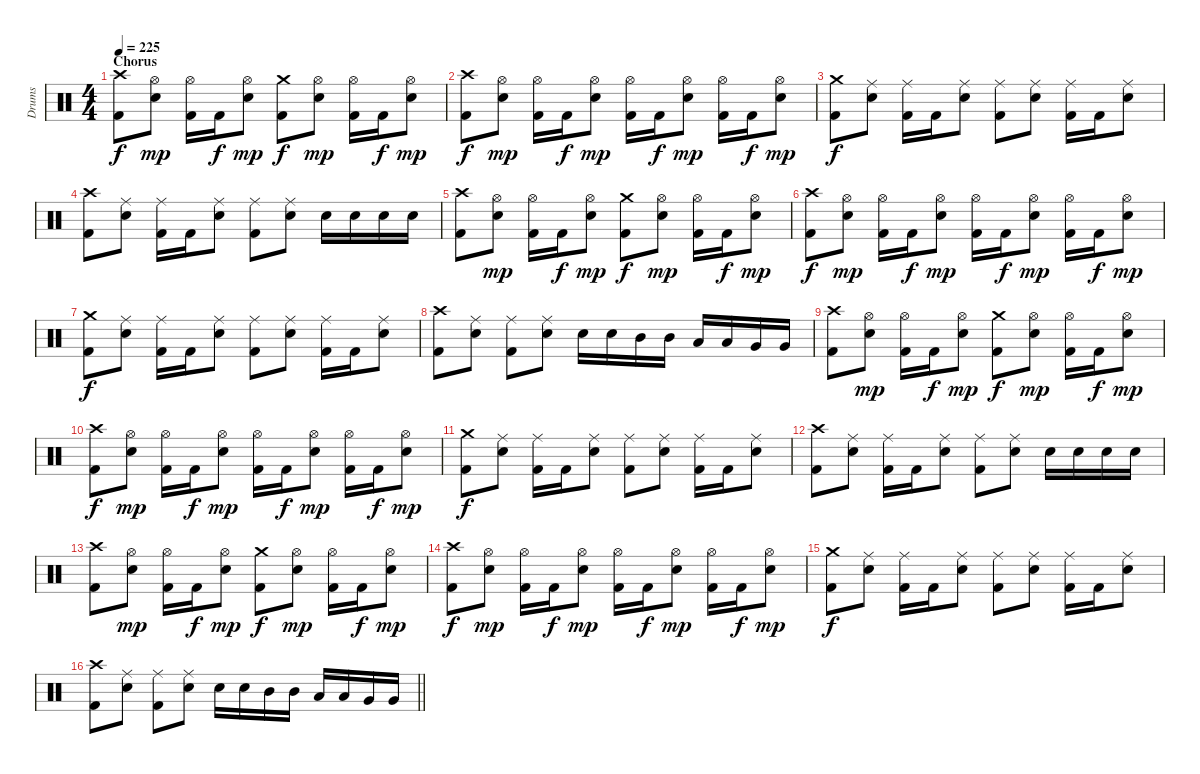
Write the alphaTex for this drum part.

\track ("Drums" "Drums") {instrument percussion}
\staff {score}
\articulation defaults
\ts (4 4)
\section ("" "Chorus")
\tempo 225
\clef neutral
\ks c
("Crash high (hit)" "Kick (hit) 2").8{dy f} ("Hi-Hat (open)" "Snare (hit) 2").8{dy mp} ("Hi-Hat (open)" "Kick (hit) 2").16 "Kick (hit) 2".16{dy f} ("Hi-Hat (open)" "Snare (hit) 2").8{dy mp} ("Crash medium (hit)" "Kick (hit) 2").8{dy f} ("Hi-Hat (open)" "Snare (hit) 2").8{dy mp} ("Hi-Hat (open)" "Kick (hit) 2").16 "Kick (hit) 2".16{dy f} ("Hi-Hat (open)" "Snare (hit) 2").8{dy mp} |
("Crash high (hit)" "Kick (hit) 2").8{dy f} ("Hi-Hat (open)" "Snare (hit) 2").8{dy mp} ("Hi-Hat (open)" "Kick (hit) 2").16 "Kick (hit) 2".16{dy f} ("Hi-Hat (open)" "Snare (hit) 2").8{dy mp} ("Hi-Hat (open)" "Kick (hit) 2").16 "Kick (hit) 2".16{dy f} ("Hi-Hat (open)" "Snare (hit) 2").8{dy mp} ("Hi-Hat (open)" "Kick (hit) 2").16 "Kick (hit) 2".16{dy f} ("Hi-Hat (open)" "Snare (hit) 2").8{dy mp} |
("Crash medium (hit)" "Kick (hit) 2").8{dy f} ("Ride (middle)" "Snare (hit) 2").8 ("Ride (middle)" "Kick (hit) 2").16 "Kick (hit) 2".16 ("Ride (middle)" "Snare (hit) 2").8 ("Ride (middle)" "Kick (hit) 2").8 ("Ride (middle)" "Snare (hit) 2").8 ("Ride (middle)" "Kick (hit) 2").16 "Kick (hit) 2".16 ("Ride (middle)" "Snare (hit) 2").8 |
("Crash high (hit)" "Kick (hit) 2").8 ("Ride (middle)" "Snare (hit) 2").8 ("Ride (middle)" "Kick (hit) 2").16 "Kick (hit) 2".16 ("Ride (middle)" "Snare (hit) 2").8 ("Ride (middle)" "Kick (hit) 2").8 ("Ride (middle)" "Snare (hit) 2").8 "Snare (hit) 2".16 "Snare (hit) 2".16 "Snare (hit) 2".16 "Snare (hit) 2".16 |
("Crash high (hit)" "Kick (hit) 2").8 ("Hi-Hat (open)" "Snare (hit) 2").8{dy mp} ("Hi-Hat (open)" "Kick (hit) 2").16 "Kick (hit) 2".16{dy f} ("Hi-Hat (open)" "Snare (hit) 2").8{dy mp} ("Crash medium (hit)" "Kick (hit) 2").8{dy f} ("Hi-Hat (open)" "Snare (hit) 2").8{dy mp} ("Hi-Hat (open)" "Kick (hit) 2").16 "Kick (hit) 2".16{dy f} ("Hi-Hat (open)" "Snare (hit) 2").8{dy mp} |
("Crash high (hit)" "Kick (hit) 2").8{dy f} ("Hi-Hat (open)" "Snare (hit) 2").8{dy mp} ("Hi-Hat (open)" "Kick (hit) 2").16 "Kick (hit) 2".16{dy f} ("Hi-Hat (open)" "Snare (hit) 2").8{dy mp} ("Hi-Hat (open)" "Kick (hit) 2").16 "Kick (hit) 2".16{dy f} ("Hi-Hat (open)" "Snare (hit) 2").8{dy mp} ("Hi-Hat (open)" "Kick (hit) 2").16 "Kick (hit) 2".16{dy f} ("Hi-Hat (open)" "Snare (hit) 2").8{dy mp} |
("Crash medium (hit)" "Kick (hit) 2").8{dy f} ("Ride (middle)" "Snare (hit) 2").8 ("Ride (middle)" "Kick (hit) 2").16 "Kick (hit) 2".16 ("Ride (middle)" "Snare (hit) 2").8 ("Ride (middle)" "Kick (hit) 2").8 ("Ride (middle)" "Snare (hit) 2").8 ("Ride (middle)" "Kick (hit) 2").16 "Kick (hit) 2".16 ("Ride (middle)" "Snare (hit) 2").8 |
("Crash high (hit)" "Kick (hit) 2").8 ("Ride (middle)" "Snare (hit) 2").8 ("Ride (middle)" "Kick (hit) 2").8 ("Ride (middle)" "Snare (hit) 2").8 "Snare (hit) 2".16 "Snare (hit) 2".16 "Mid Tom (hit)".16 "Mid Tom (hit)".16 "Low Tom (hit)".16 "Low Tom (hit)".16 "Very Low Tom (hit)".16 "Very Low Tom (hit)".16 |
("Crash high (hit)" "Kick (hit) 2").8 ("Hi-Hat (open)" "Snare (hit) 2").8{dy mp} ("Hi-Hat (open)" "Kick (hit) 2").16 "Kick (hit) 2".16{dy f} ("Hi-Hat (open)" "Snare (hit) 2").8{dy mp} ("Crash medium (hit)" "Kick (hit) 2").8{dy f} ("Hi-Hat (open)" "Snare (hit) 2").8{dy mp} ("Hi-Hat (open)" "Kick (hit) 2").16 "Kick (hit) 2".16{dy f} ("Hi-Hat (open)" "Snare (hit) 2").8{dy mp} |
("Crash high (hit)" "Kick (hit) 2").8{dy f} ("Hi-Hat (open)" "Snare (hit) 2").8{dy mp} ("Hi-Hat (open)" "Kick (hit) 2").16 "Kick (hit) 2".16{dy f} ("Hi-Hat (open)" "Snare (hit) 2").8{dy mp} ("Hi-Hat (open)" "Kick (hit) 2").16 "Kick (hit) 2".16{dy f} ("Hi-Hat (open)" "Snare (hit) 2").8{dy mp} ("Hi-Hat (open)" "Kick (hit) 2").16 "Kick (hit) 2".16{dy f} ("Hi-Hat (open)" "Snare (hit) 2").8{dy mp} |
("Crash medium (hit)" "Kick (hit) 2").8{dy f} ("Ride (middle)" "Snare (hit) 2").8 ("Ride (middle)" "Kick (hit) 2").16 "Kick (hit) 2".16 ("Ride (middle)" "Snare (hit) 2").8 ("Ride (middle)" "Kick (hit) 2").8 ("Ride (middle)" "Snare (hit) 2").8 ("Ride (middle)" "Kick (hit) 2").16 "Kick (hit) 2".16 ("Ride (middle)" "Snare (hit) 2").8 |
("Crash high (hit)" "Kick (hit) 2").8 ("Ride (middle)" "Snare (hit) 2").8 ("Ride (middle)" "Kick (hit) 2").16 "Kick (hit) 2".16 ("Ride (middle)" "Snare (hit) 2").8 ("Ride (middle)" "Kick (hit) 2").8 ("Ride (middle)" "Snare (hit) 2").8 "Snare (hit) 2".16 "Snare (hit) 2".16 "Snare (hit) 2".16 "Snare (hit) 2".16 |
("Crash high (hit)" "Kick (hit) 2").8 ("Hi-Hat (open)" "Snare (hit) 2").8{dy mp} ("Hi-Hat (open)" "Kick (hit) 2").16 "Kick (hit) 2".16{dy f} ("Hi-Hat (open)" "Snare (hit) 2").8{dy mp} ("Crash medium (hit)" "Kick (hit) 2").8{dy f} ("Hi-Hat (open)" "Snare (hit) 2").8{dy mp} ("Hi-Hat (open)" "Kick (hit) 2").16 "Kick (hit) 2".16{dy f} ("Hi-Hat (open)" "Snare (hit) 2").8{dy mp} |
("Crash high (hit)" "Kick (hit) 2").8{dy f} ("Hi-Hat (open)" "Snare (hit) 2").8{dy mp} ("Hi-Hat (open)" "Kick (hit) 2").16 "Kick (hit) 2".16{dy f} ("Hi-Hat (open)" "Snare (hit) 2").8{dy mp} ("Hi-Hat (open)" "Kick (hit) 2").16 "Kick (hit) 2".16{dy f} ("Hi-Hat (open)" "Snare (hit) 2").8{dy mp} ("Hi-Hat (open)" "Kick (hit) 2").16 "Kick (hit) 2".16{dy f} ("Hi-Hat (open)" "Snare (hit) 2").8{dy mp} |
("Crash medium (hit)" "Kick (hit) 2").8{dy f} ("Ride (middle)" "Snare (hit) 2").8 ("Ride (middle)" "Kick (hit) 2").16 "Kick (hit) 2".16 ("Ride (middle)" "Snare (hit) 2").8 ("Ride (middle)" "Kick (hit) 2").8 ("Ride (middle)" "Snare (hit) 2").8 ("Ride (middle)" "Kick (hit) 2").16 "Kick (hit) 2".16 ("Ride (middle)" "Snare (hit) 2").8 |
\barLineRight lightlight
("Crash high (hit)" "Kick (hit) 2").8 ("Ride (middle)" "Snare (hit) 2").8 ("Ride (middle)" "Kick (hit) 2").8 ("Ride (middle)" "Snare (hit) 2").8 "Snare (hit) 2".16 "Snare (hit) 2".16 "Mid Tom (hit)".16 "Mid Tom (hit)".16 "Low Tom (hit)".16 "Low Tom (hit)".16 "Very Low Tom (hit)".16 "Very Low Tom (hit)".16
